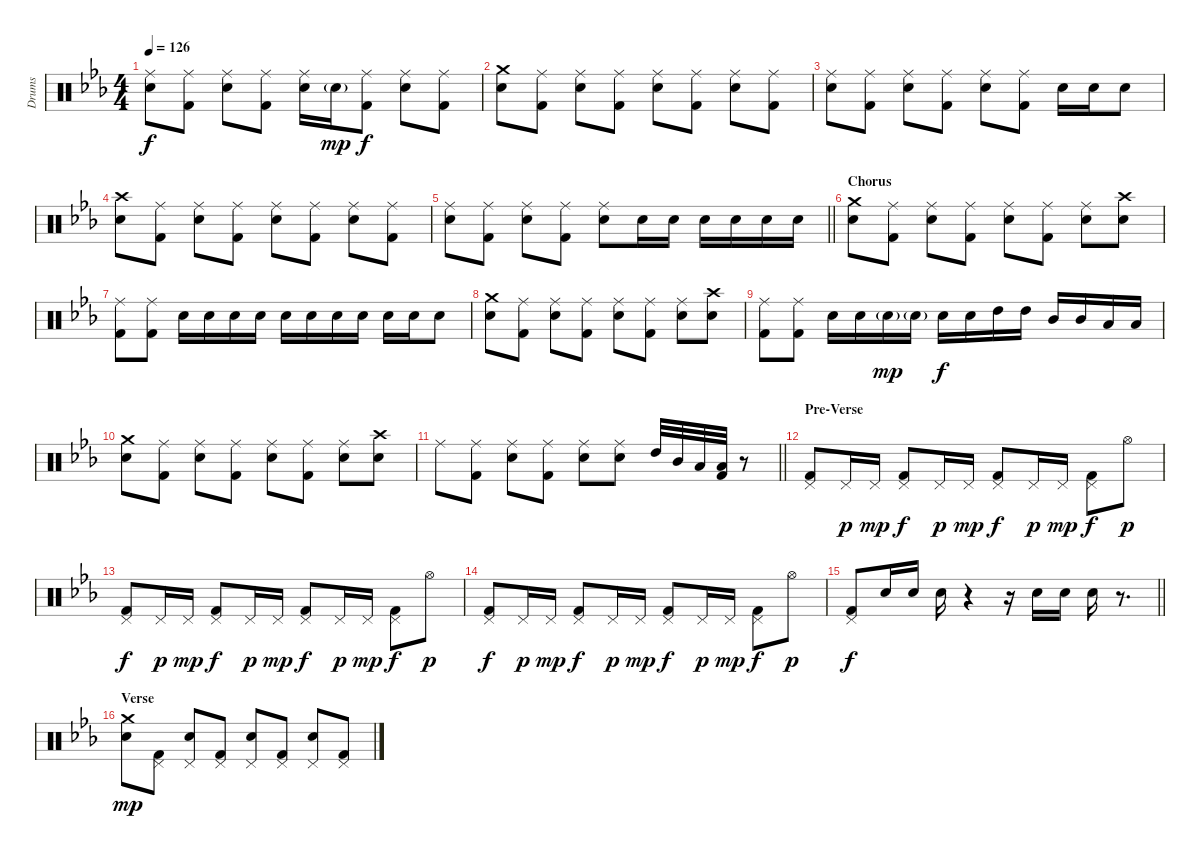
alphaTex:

\track ("Drums" "Drums") {instrument percussion}
\staff {score}
\articulation defaults
\ts (4 4)
\tempo 126
\clef neutral
\ks eb
("Ride (middle)" "Electric Snare (hit)").8{dy f} ("Ride (middle)" "Kick (hit) 2").8 ("Ride (middle)" "Electric Snare (hit)").8 ("Ride (middle)" "Kick (hit) 2").8 ("Ride (middle)" "Electric Snare (hit)").16 "Electric Snare (hit)"{g}.16{dy mp} ("Ride (middle)" "Kick (hit) 2").8{dy f} ("Ride (middle)" "Electric Snare (hit)").8 ("Ride (middle)" "Kick (hit) 2").8 |
("Crash medium (hit)" "Electric Snare (hit)").8 ("Ride (middle)" "Kick (hit) 2").8 ("Ride (middle)" "Electric Snare (hit)").8 ("Ride (middle)" "Kick (hit) 2").8 ("Ride (middle)" "Electric Snare (hit)").8 ("Ride (middle)" "Kick (hit) 2").8 ("Ride (middle)" "Electric Snare (hit)").8 ("Ride (middle)" "Kick (hit) 2").8 |
("Ride (middle)" "Electric Snare (hit)").8 ("Ride (middle)" "Kick (hit) 2").8 ("Ride (middle)" "Electric Snare (hit)").8 ("Ride (middle)" "Kick (hit) 2").8 ("Ride (middle)" "Electric Snare (hit)").8 ("Ride (middle)" "Kick (hit) 2").8 "Electric Snare (hit)".16 "Electric Snare (hit)".16 "Electric Snare (hit)".8 |
("Crash high (hit)" "Electric Snare (hit)").8 ("Ride (middle)" "Kick (hit) 2").8 ("Ride (middle)" "Electric Snare (hit)").8 ("Ride (middle)" "Kick (hit) 2").8 ("Ride (middle)" "Electric Snare (hit)").8 ("Ride (middle)" "Kick (hit) 2").8 ("Ride (middle)" "Electric Snare (hit)").8 ("Ride (middle)" "Kick (hit) 2").8 |
\barLineRight lightlight
("Ride (middle)" "Electric Snare (hit)").8 ("Ride (middle)" "Kick (hit) 2").8 ("Ride (middle)" "Electric Snare (hit)").8 ("Ride (middle)" "Kick (hit) 2").8 ("Ride (middle)" "Electric Snare (hit)").8 "Electric Snare (hit)".16 "Electric Snare (hit)".16 "Electric Snare (hit)".16 "Electric Snare (hit)".16 "Electric Snare (hit)".16 "Electric Snare (hit)".16 |
\section ("" "Chorus")
("Crash medium (hit)" "Electric Snare (hit)").8 ("Ride (middle)" "Kick (hit) 2").8 ("Ride (middle)" "Electric Snare (hit)").8 ("Ride (middle)" "Kick (hit) 2").8 ("Ride (middle)" "Electric Snare (hit)").8 ("Ride (middle)" "Kick (hit) 2").8 ("Ride (middle)" "Electric Snare (hit)").8 ("Crash high (hit)" "Electric Snare (hit)").8 |
("Ride (middle)" "Kick (hit) 2").8 ("Ride (middle)" "Kick (hit) 2").8 "Electric Snare (hit)".16 "Electric Snare (hit)".16 "Electric Snare (hit)".16 "Electric Snare (hit)".16 "Electric Snare (hit)".16 "Electric Snare (hit)".16 "Electric Snare (hit)".16 "Electric Snare (hit)".16 "Electric Snare (hit)".16 "Electric Snare (hit)".16 "Electric Snare (hit)".8 |
("Crash medium (hit)" "Electric Snare (hit)").8 ("Ride (middle)" "Kick (hit) 2").8 ("Ride (middle)" "Electric Snare (hit)").8 ("Ride (middle)" "Kick (hit) 2").8 ("Ride (middle)" "Electric Snare (hit)").8 ("Ride (middle)" "Kick (hit) 2").8 ("Ride (middle)" "Electric Snare (hit)").8 ("Crash high (hit)" "Electric Snare (hit)").8 |
("Ride (middle)" "Kick (hit) 2").8 ("Ride (middle)" "Kick (hit) 2").8 "Electric Snare (hit)".16 "Electric Snare (hit)".16 "Electric Snare (hit)"{g}.16{dy mp} "Electric Snare (hit)"{g}.16 "Electric Snare (hit)".16{dy f} "Electric Snare (hit)".16 "High Tom (hit)".16 "High Tom (hit)".16 "Mid Tom (hit)".16 "Mid Tom (hit)".16 "Low Tom (hit)".16 "Low Tom (hit)".16 |
("Crash medium (hit)" "Electric Snare (hit)").8 ("Ride (middle)" "Kick (hit) 2").8 ("Ride (middle)" "Electric Snare (hit)").8 ("Ride (middle)" "Kick (hit) 2").8 ("Ride (middle)" "Electric Snare (hit)").8 ("Ride (middle)" "Kick (hit) 2").8 ("Ride (middle)" "Electric Snare (hit)").8 ("Crash high (hit)" "Electric Snare (hit)").8 |
\barLineRight lightlight "Ride (middle)".8
("Ride (middle)" "Kick (hit) 2").8 ("Ride (middle)" "Electric Snare (hit)").8 ("Ride (middle)" "Kick (hit) 2").8 ("Ride (middle)" "Electric Snare (hit)").8 ("Ride (middle)" "Electric Snare (hit)").8 "High Tom (hit)".32 "Mid Tom (hit)".32 "Low Tom (hit)".32 ("Low Tom (hit)" "Kick (hit) 2").32 r.8 |
\section ("" "Pre-Verse")
("Pedal Hi-Hat (hit)" "Kick (hit) 2").8 "Pedal Hi-Hat (hit)".16{dy p} "Pedal Hi-Hat (hit)".16{dy mp} ("Pedal Hi-Hat (hit)" "Kick (hit) 2").8{dy f} "Pedal Hi-Hat (hit)".16{dy p} "Pedal Hi-Hat (hit)".16{dy mp} ("Pedal Hi-Hat (hit)" "Kick (hit) 2").8{dy f} "Pedal Hi-Hat (hit)".16{dy p} "Pedal Hi-Hat (hit)".16{dy mp} ("Pedal Hi-Hat (hit)" "Kick (hit) 2").8{dy f} "Hi-Hat (open)".8{dy p} |
("Pedal Hi-Hat (hit)" "Kick (hit) 2").8{dy f} "Pedal Hi-Hat (hit)".16{dy p} "Pedal Hi-Hat (hit)".16{dy mp} ("Pedal Hi-Hat (hit)" "Kick (hit) 2").8{dy f} "Pedal Hi-Hat (hit)".16{dy p} "Pedal Hi-Hat (hit)".16{dy mp} ("Pedal Hi-Hat (hit)" "Kick (hit) 2").8{dy f} "Pedal Hi-Hat (hit)".16{dy p} "Pedal Hi-Hat (hit)".16{dy mp} ("Pedal Hi-Hat (hit)" "Kick (hit) 2").8{dy f} "Hi-Hat (open)".8{dy p} |
("Pedal Hi-Hat (hit)" "Kick (hit) 2").8{dy f} "Pedal Hi-Hat (hit)".16{dy p} "Pedal Hi-Hat (hit)".16{dy mp} ("Pedal Hi-Hat (hit)" "Kick (hit) 2").8{dy f} "Pedal Hi-Hat (hit)".16{dy p} "Pedal Hi-Hat (hit)".16{dy mp} ("Pedal Hi-Hat (hit)" "Kick (hit) 2").8{dy f} "Pedal Hi-Hat (hit)".16{dy p} "Pedal Hi-Hat (hit)".16{dy mp} ("Pedal Hi-Hat (hit)" "Kick (hit) 2").8{dy f} "Hi-Hat (open)".8{dy p} |
\barLineRight lightlight
("Pedal Hi-Hat (hit)" "Kick (hit) 2").8{dy f} "Electric Snare (hit)".16 "Electric Snare (hit)".16 "Electric Snare (hit)".16 r.4 r.16 "Electric Snare (hit)".16 "Electric Snare (hit)".16 "Electric Snare (hit)".16 r.8{d} |
\section ("" "Verse")
("Crash medium (hit)" "Electric Snare (hit)").8{dy mp} ("Pedal Hi-Hat (hit)" "Kick (hit) 2").8 ("Pedal Hi-Hat (hit)" "Electric Snare (hit)").8 ("Pedal Hi-Hat (hit)" "Kick (hit) 2").8 ("Pedal Hi-Hat (hit)" "Electric Snare (hit)").8 ("Pedal Hi-Hat (hit)" "Kick (hit) 2").8 ("Pedal Hi-Hat (hit)" "Electric Snare (hit)").8 ("Pedal Hi-Hat (hit)" "Kick (hit) 2").8
